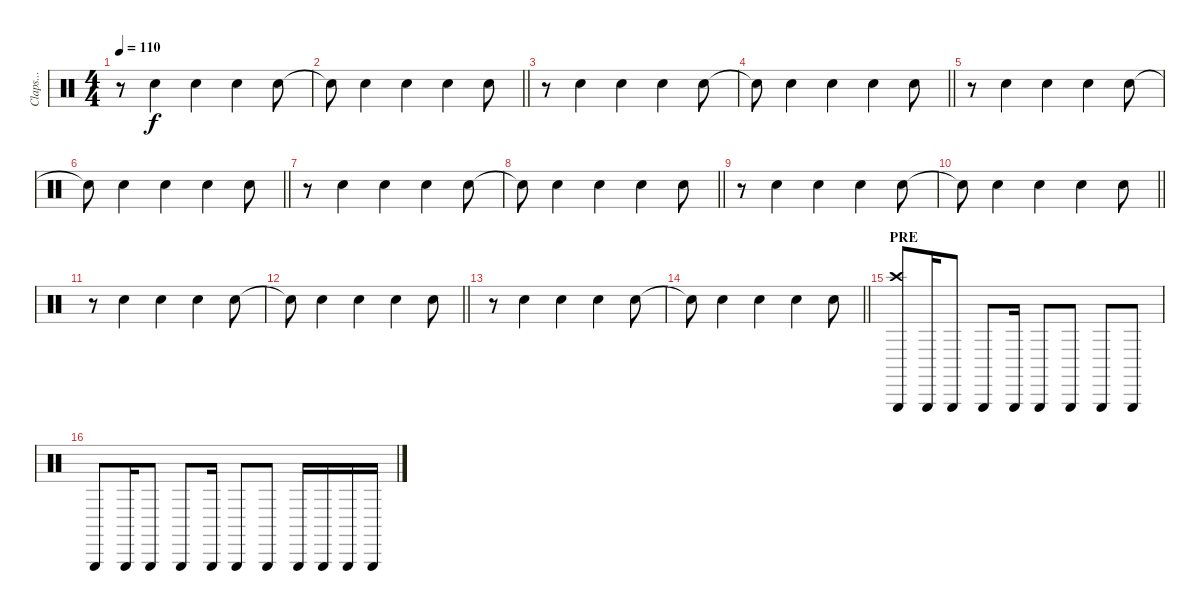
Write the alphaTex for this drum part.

\track ("Claps..." "Claps...") {instrument percussion}
\staff {score}
\articulation defaults
\ts (4 4)
\tempo 110
\clef neutral
\ks c
r.8{dy f} "Hand Clap (hit)".4 "Hand Clap (hit)".4 "Hand Clap (hit)".4 "Hand Clap (hit)".8 |
\barLineRight lightlight "Hand Clap (hit)"{t}.8 "Hand Clap (hit)".4 "Hand Clap (hit)".4 "Hand Clap (hit)".4 "Hand Clap (hit)".8
|
r.8 "Hand Clap (hit)".4 "Hand Clap (hit)".4 "Hand Clap (hit)".4 "Hand Clap (hit)".8 |
\barLineRight lightlight "Hand Clap (hit)"{t}.8 "Hand Clap (hit)".4 "Hand Clap (hit)".4 "Hand Clap (hit)".4 "Hand Clap (hit)".8
|
r.8 "Hand Clap (hit)".4 "Hand Clap (hit)".4 "Hand Clap (hit)".4 "Hand Clap (hit)".8 |
\barLineRight lightlight "Hand Clap (hit)"{t}.8 "Hand Clap (hit)".4 "Hand Clap (hit)".4 "Hand Clap (hit)".4 "Hand Clap (hit)".8
|
\section ("" "")
r.8 "Hand Clap (hit)".4 "Hand Clap (hit)".4 "Hand Clap (hit)".4 "Hand Clap (hit)".8 |
\barLineRight lightlight "Hand Clap (hit)"{t}.8 "Hand Clap (hit)".4 "Hand Clap (hit)".4 "Hand Clap (hit)".4 "Hand Clap (hit)".8
|
r.8 "Hand Clap (hit)".4 "Hand Clap (hit)".4 "Hand Clap (hit)".4 "Hand Clap (hit)".8 |
\barLineRight lightlight "Hand Clap (hit)"{t}.8 "Hand Clap (hit)".4 "Hand Clap (hit)".4 "Hand Clap (hit)".4 "Hand Clap (hit)".8
|
r.8 "Hand Clap (hit)".4 "Hand Clap (hit)".4 "Hand Clap (hit)".4 "Hand Clap (hit)".8 |
\barLineRight lightlight "Hand Clap (hit)"{t}.8 "Hand Clap (hit)".4 "Hand Clap (hit)".4 "Hand Clap (hit)".4 "Hand Clap (hit)".8
|
r.8 "Hand Clap (hit)".4 "Hand Clap (hit)".4 "Hand Clap (hit)".4 "Hand Clap (hit)".8 |
\barLineRight lightlight "Hand Clap (hit)"{t}.8 "Hand Clap (hit)".4 "Hand Clap (hit)".4 "Hand Clap (hit)".4 "Hand Clap (hit)".8
|
\section ("" "PRE")
("Triangle (hit)" "Crash high (hit)").8 "Triangle (hit)".16 "Triangle (hit)".8 "Triangle (hit)".8 "Triangle (hit)".16 "Triangle (hit)".8 "Triangle (hit)".8 "Triangle (hit)".8 "Triangle (hit)".8 |
"Triangle (hit)".8 "Triangle (hit)".16 "Triangle (hit)".8 "Triangle (hit)".8 "Triangle (hit)".16 "Triangle (hit)".8 "Triangle (hit)".8 "Triangle (hit)".16 "Triangle (hit)".16 "Triangle (hit)".16 "Triangle (hit)".16
